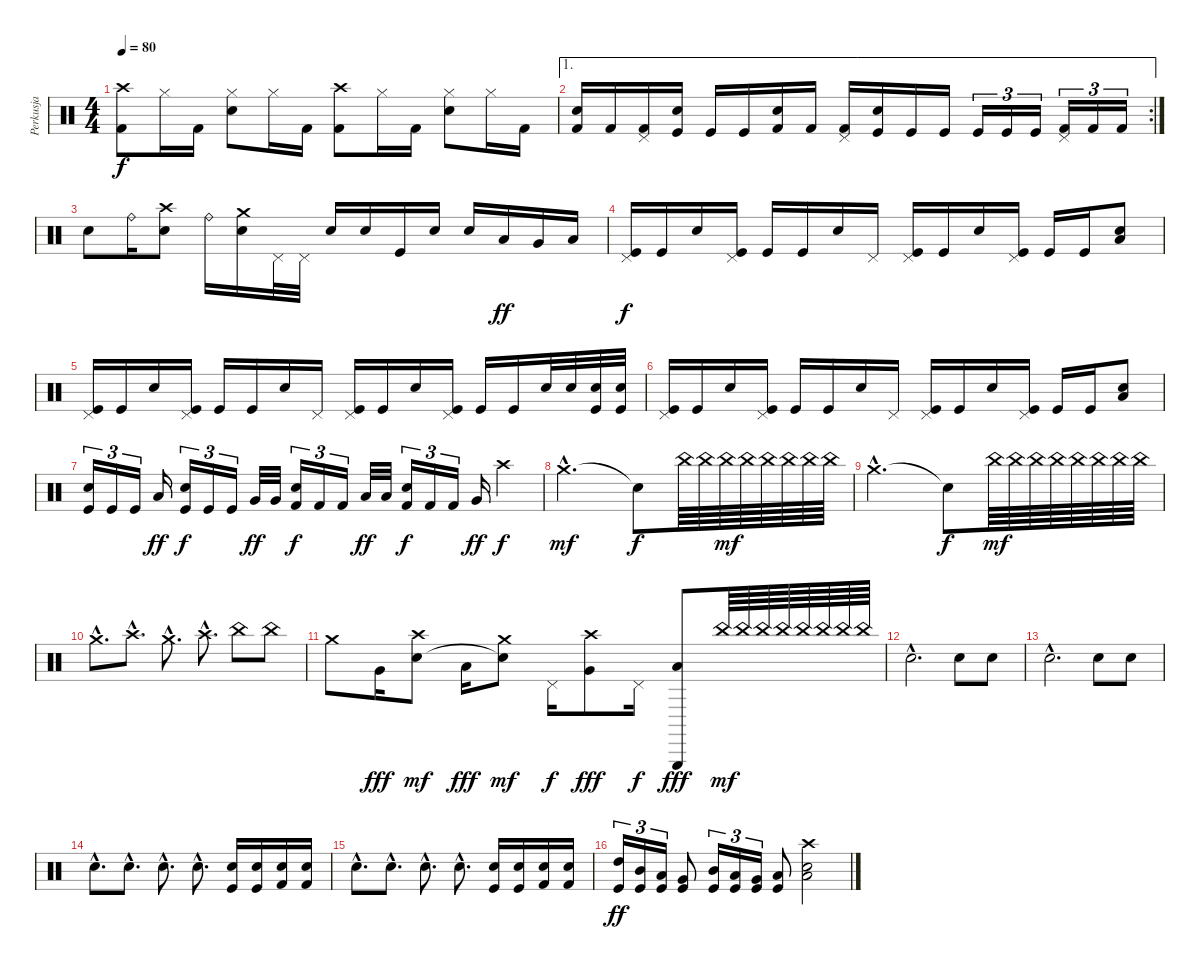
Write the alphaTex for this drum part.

\track ("Perkusja" "Perkusja") {instrument percussion}
\staff {score}
\articulation defaults
\ts (4 4)
\tempo 80
\clef neutral
\ks c
("Kick (hit) 2" "Crash high (hit)").8{dy f} "Hi-Hat (closed)".16 "Kick (hit) 2".16 ("Snare (hit) 2" "Hi-Hat (closed)").8 "Hi-Hat (closed)".16 "Kick (hit) 2".16 ("Kick (hit) 2" "Crash high (hit)").8 "Hi-Hat (closed)".16 "Kick (hit) 2".16 ("Snare (hit) 2" "Hi-Hat (closed)").8 "Hi-Hat (closed)".16 "Kick (hit) 2".16 |
\ae 1
\rc 2
("Kick (hit) 2" "Electric Snare (hit)").16 "Kick (hit) 2".16 ("Kick (hit) 2" "Pedal Hi-Hat (hit)").16 ("Kick (hit)" "Snare (hit) 2").16 "Kick (hit)".16 "Kick (hit)".16 ("Kick (hit) 2" "Electric Snare (hit)").16 "Kick (hit) 2".16 ("Kick (hit) 2" "Pedal Hi-Hat (hit)").16 ("Kick (hit)" "Snare (hit) 2").16 "Kick (hit)".16 "Kick (hit)".16 "Kick (hit)".16{tu (3 2)} "Kick (hit)".16{tu (3 2)} "Kick (hit)".16{tu (3 2)} ("Kick (hit) 2" "Pedal Hi-Hat (hit)").16{tu (3 2)} "Kick (hit) 2".16{tu (3 2)} "Kick (hit) 2".16{tu (3 2)} |
"Electric Snare (hit)".8 "Ride (bell)".16 ("Electric Snare (hit)" "Crash high (hit)").8 "Ride (bell)".16 ("Electric Snare (hit)" "Crash medium (hit)").16 "Pedal Hi-Hat (hit)".32 "Pedal Hi-Hat (hit)".32 "Electric Snare (hit)".16 "Snare (hit) 2".16 "Kick (hit)".16 "Electric Snare (hit)".16 "Snare (hit) 2".16 "Low Tom (hit)".16{dy ff} "Very Low Tom (hit)".16 "Low Floor Tom (hit)".16 |
("Kick (hit)" "Pedal Hi-Hat (hit)").16{dy f} "Kick (hit)".16 "Electric Snare (hit)".16 ("Kick (hit)" "Pedal Hi-Hat (hit)").16 "Kick (hit)".16 "Kick (hit)".16 "Electric Snare (hit)".16 "Pedal Hi-Hat (hit)".16 ("Kick (hit)" "Pedal Hi-Hat (hit)").16 "Kick (hit)".16 "Electric Snare (hit)".16 ("Kick (hit)" "Pedal Hi-Hat (hit)").16 "Kick (hit)".16 "Kick (hit)".16 ("Electric Snare (hit)" "Low Tom (hit)").8 |
("Kick (hit)" "Pedal Hi-Hat (hit)").16 "Kick (hit)".16 "Electric Snare (hit)".16 ("Kick (hit)" "Pedal Hi-Hat (hit)").16 "Kick (hit)".16 "Kick (hit)".16 "Electric Snare (hit)".16 "Pedal Hi-Hat (hit)".16 ("Kick (hit)" "Pedal Hi-Hat (hit)").16 "Kick (hit)".16 "Electric Snare (hit)".16 ("Kick (hit)" "Pedal Hi-Hat (hit)").16 "Kick (hit)".16 "Kick (hit)".16 "Electric Snare (hit)".32 "Electric Snare (hit)".32 ("Electric Snare (hit)" "Kick (hit)").32 ("Electric Snare (hit)" "Kick (hit)").32 |
("Kick (hit)" "Pedal Hi-Hat (hit)").16 "Kick (hit)".16 "Electric Snare (hit)".16 ("Kick (hit)" "Pedal Hi-Hat (hit)").16 "Kick (hit)".16 "Kick (hit)".16 "Electric Snare (hit)".16 "Pedal Hi-Hat (hit)".16 ("Kick (hit)" "Pedal Hi-Hat (hit)").16 "Kick (hit)".16 "Electric Snare (hit)".16 ("Kick (hit)" "Pedal Hi-Hat (hit)").16 "Kick (hit)".16 "Kick (hit)".16 ("Electric Snare (hit)" "Low Tom (hit)").8 |
("Kick (hit)" "Snare (hit) 2").16{tu (3 2)} "Kick (hit)".16{tu (3 2)} "Kick (hit)".16{tu (3 2)} "Low Tom (hit)".16{dy ff} ("Kick (hit)" "Snare (hit) 2").16{tu (3 2) dy f} "Kick (hit)".16{tu (3 2)} "Kick (hit)".16{tu (3 2)} "Very Low Tom (hit)".32{dy ff} "Very Low Tom (hit)".32 ("Kick (hit) 2" "Electric Snare (hit)").16{tu (3 2) dy f} "Kick (hit) 2".16{tu (3 2)} "Kick (hit) 2".16{tu (3 2)} "Low Tom (hit)".32{dy ff} "Low Tom (hit)".32 ("Kick (hit) 2" "Electric Snare (hit)").16{tu (3 2) dy f} "Kick (hit) 2".16{tu (3 2)} "Kick (hit) 2".16{tu (3 2)} "Very Low Tom (hit)".16{dy ff} "Crash high (hit)".4{dy f} |
"Crash medium (hit)"{hac}.2{d dy mf} "Snare (hit)"{t}.8{dy f} "China (hit)".64 "China (hit)".64 "China (hit)".64{dy mf} "China (hit)".64 "China (hit)".64 "China (hit)".64 "China (hit)".64 "China (hit)".64 |
"Crash medium (hit)"{hac}.2{d} "Snare (hit)"{t}.8{dy f} "China (hit)".64{dy mf} "China (hit)".64 "China (hit)".64 "China (hit)".64 "China (hit)".64 "China (hit)".64 "China (hit)".64 "China (hit)".64 |
"Crash medium (hit)"{hac}.8{d} "Crash high (hit)"{hac}.8{d} "Crash medium (hit)"{hac}.8{d} "Crash high (hit)"{hac}.8{d} "China (hit)".8 "China (hit)".8 |
"Crash medium (hit)".8 "Very Low Tom (hit)".16{dy fff} ("Crash high (hit)" "Snare (hit)").8{dy mf} "Low Floor Tom (hit)".16{dy fff} ("Crash medium (hit)" "Snare (hit)"{t}).8{dy mf} "Pedal Hi-Hat (hit)".16{dy f} ("Crash high (hit)" "Very Low Tom (hit)").8{dy fff} "Pedal Hi-Hat (hit)".16{dy f} ("Triangle (hit)" "Low Floor Tom (hit)").8{dy fff} "China (hit)".64{dy mf} "China (hit)".64 "China (hit)".64 "China (hit)".64 "China (hit)".64 "China (hit)".64 "China (hit)".64 "China (hit)".64 |
"Electric Snare (hit)"{hac}.2{d} "Snare (hit) 2".8 "Snare (hit) 2".8 |
"Electric Snare (hit)"{hac}.2{d} "Snare (hit) 2".8 "Snare (hit) 2".8 |
"Electric Snare (hit)"{hac}.8{d} "Snare (hit) 2"{hac}.8{d} "Electric Snare (hit)"{hac}.8{d} "Snare (hit) 2"{hac}.8{d} ("Snare (hit) 2" "Kick (hit)").16 ("Snare (hit) 2" "Kick (hit)").16 ("Electric Snare (hit)" "Kick (hit) 2").16 ("Electric Snare (hit)" "Kick (hit) 2").16 |
"Electric Snare (hit)"{hac}.8{d} "Snare (hit) 2"{hac}.8{d} "Electric Snare (hit)"{hac}.8{d} "Snare (hit) 2"{hac}.8{d} ("Snare (hit) 2" "Kick (hit)").16 ("Snare (hit) 2" "Kick (hit)").16 ("Electric Snare (hit)" "Kick (hit) 2").16 ("Electric Snare (hit)" "Kick (hit) 2").16 |
("Kick (hit)" "High Tom (hit)").16{tu (3 2) dy ff} ("Kick (hit)" "Mid Tom (hit)").16{tu (3 2)} ("Kick (hit)" "Low Tom (hit)").16{tu (3 2)} ("Kick (hit)" "Very Low Tom (hit)").8 ("Kick (hit)" "Mid Tom (hit)").16{tu (3 2)} ("Kick (hit)" "Low Tom (hit)").16{tu (3 2)} ("Kick (hit)" "Very Low Tom (hit)").16{tu (3 2)} ("Kick (hit)" "Low Floor Tom (hit)").8 ("Electric Snare (hit)" "Low Floor Tom (hit)" "Crash high (hit)").2
